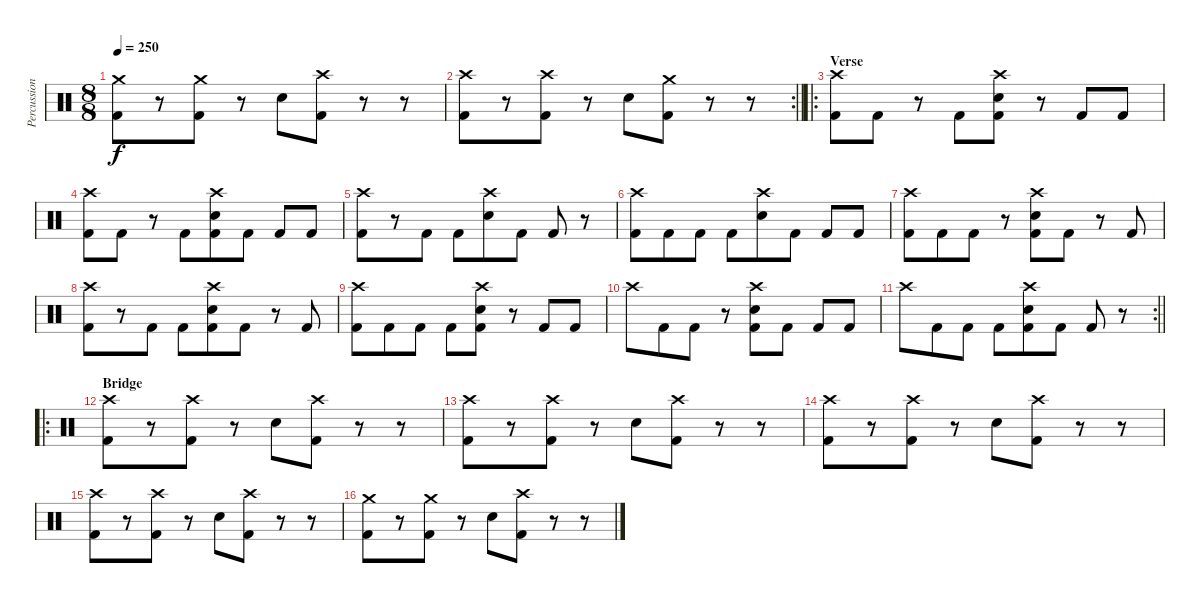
\track ("Percussions" "Percussion") {instrument percussion}
\staff {score}
\articulation defaults
\ts (8 8)
\tempo 250
\clef neutral
\ks c
("Crash medium (hit)" "Kick (hit) 2").8{dy f} r.8 ("Crash medium (hit)" "Kick (hit) 2").8 r.8 "Electric Snare (hit)".8 ("Crash high (hit)" "Kick (hit) 2").8 r.8 r.8 |
\rc 2
\barLineRight lightlight
("Crash high (hit)" "Kick (hit) 2").8 r.8 ("Crash high (hit)" "Kick (hit) 2").8 r.8 "Electric Snare (hit)".8 ("Crash medium (hit)" "Kick (hit) 2").8 r.8 r.8 |
\ro
\section ("" "Verse")
("Crash high (hit)" "Kick (hit) 2").8 "Kick (hit) 2".8 r.8 "Kick (hit) 2".8 ("Crash high (hit)" "Electric Snare (hit)" "Kick (hit) 2").8 r.8 "Kick (hit) 2".8 "Kick (hit) 2".8 |
("Crash high (hit)" "Kick (hit) 2").8 "Kick (hit) 2".8 r.8 "Kick (hit) 2".8 ("Crash high (hit)" "Electric Snare (hit)" "Kick (hit) 2").8 "Kick (hit) 2".8 "Kick (hit) 2".8 "Kick (hit) 2".8 |
("Crash high (hit)" "Kick (hit) 2").8 r.8 "Kick (hit) 2".8 "Kick (hit) 2".8 ("Crash high (hit)" "Electric Snare (hit)").8 "Kick (hit) 2".8 "Kick (hit) 2".8 r.8 |
("Crash high (hit)" "Kick (hit) 2").8 "Kick (hit) 2".8 "Kick (hit) 2".8 "Kick (hit) 2".8 ("Crash high (hit)" "Electric Snare (hit)").8 "Kick (hit) 2".8 "Kick (hit) 2".8 "Kick (hit) 2".8 |
("Crash high (hit)" "Kick (hit) 2").8 "Kick (hit) 2".8 "Kick (hit) 2".8 r.8 ("Crash high (hit)" "Electric Snare (hit)" "Kick (hit) 2").8 "Kick (hit) 2".8 r.8 "Kick (hit) 2".8 |
("Crash high (hit)" "Kick (hit) 2").8 r.8 "Kick (hit) 2".8 "Kick (hit) 2".8 ("Crash high (hit)" "Electric Snare (hit)" "Kick (hit) 2").8 "Kick (hit) 2".8 r.8 "Kick (hit) 2".8 |
("Crash high (hit)" "Kick (hit) 2").8 "Kick (hit) 2".8 "Kick (hit) 2".8 "Kick (hit) 2".8 ("Crash high (hit)" "Electric Snare (hit)" "Kick (hit) 2").8 r.8 "Kick (hit) 2".8 "Kick (hit) 2".8 |
"Crash high (hit)".8 "Kick (hit) 2".8 "Kick (hit) 2".8 r.8 ("Crash high (hit)" "Electric Snare (hit)" "Kick (hit) 2").8 "Kick (hit) 2".8 "Kick (hit) 2".8 "Kick (hit) 2".8 |
\rc 2
\barLineRight lightlight "Crash high (hit)".8 "Kick (hit) 2".8 "Kick (hit) 2".8 "Kick (hit) 2".8
("Crash high (hit)" "Electric Snare (hit)" "Kick (hit) 2").8 "Kick (hit) 2".8 "Kick (hit) 2".8 r.8 |
\ro
\section ("" "Bridge")
("Crash high (hit)" "Kick (hit) 2").8 r.8 ("Crash high (hit)" "Kick (hit) 2").8 r.8 "Electric Snare (hit)".8 ("Crash high (hit)" "Kick (hit) 2").8 r.8 r.8 |
("Crash high (hit)" "Kick (hit) 2").8 r.8 ("Crash high (hit)" "Kick (hit) 2").8 r.8 "Electric Snare (hit)".8 ("Crash high (hit)" "Kick (hit) 2").8 r.8 r.8 |
("Crash high (hit)" "Kick (hit) 2").8 r.8 ("Crash high (hit)" "Kick (hit) 2").8 r.8 "Electric Snare (hit)".8 ("Crash high (hit)" "Kick (hit) 2").8 r.8 r.8 |
("Crash high (hit)" "Kick (hit) 2").8 r.8 ("Crash high (hit)" "Kick (hit) 2").8 r.8 "Electric Snare (hit)".8 ("Crash high (hit)" "Kick (hit) 2").8 r.8 r.8 |
("Crash medium (hit)" "Kick (hit) 2").8 r.8 ("Crash medium (hit)" "Kick (hit) 2").8 r.8 "Electric Snare (hit)".8 ("Crash high (hit)" "Kick (hit) 2").8 r.8 r.8
